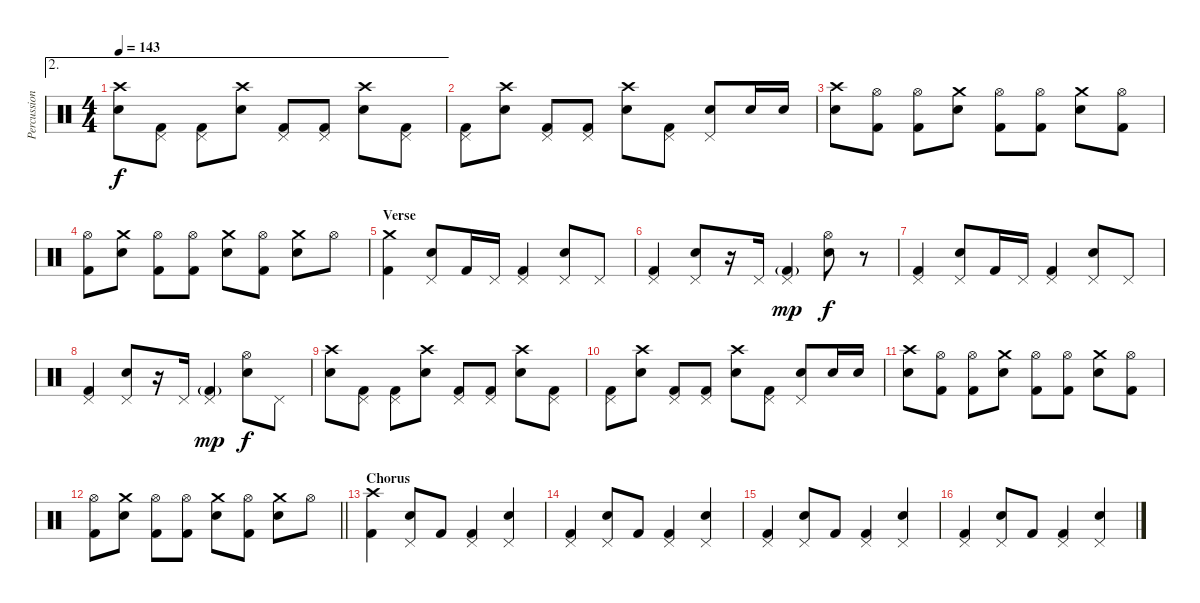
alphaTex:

\track ("Percussion" "Percussion") {instrument percussion}
\staff {score}
\articulation defaults
\ae 2
\ts (4 4)
\tempo 143
\clef neutral
\ks c
("Electric Snare (hit)" "Crash high (hit)").8{dy f} ("Pedal Hi-Hat (hit)" "Kick (hit) 2").8 ("Pedal Hi-Hat (hit)" "Kick (hit) 2").8 ("Electric Snare (hit)" "Crash high (hit)").8 ("Pedal Hi-Hat (hit)" "Kick (hit) 2").8 ("Pedal Hi-Hat (hit)" "Kick (hit) 2").8 ("Electric Snare (hit)" "Crash high (hit)").8 ("Pedal Hi-Hat (hit)" "Kick (hit) 2").8 |
("Pedal Hi-Hat (hit)" "Kick (hit) 2").8 ("Electric Snare (hit)" "Crash high (hit)").8 ("Pedal Hi-Hat (hit)" "Kick (hit) 2").8 ("Pedal Hi-Hat (hit)" "Kick (hit) 2").8 ("Electric Snare (hit)" "Crash high (hit)").8 ("Pedal Hi-Hat (hit)" "Kick (hit) 2").8 ("Pedal Hi-Hat (hit)" "Electric Snare (hit)").8 "Electric Snare (hit)".16 "Electric Snare (hit)".16 |
("Crash high (hit)" "Electric Snare (hit)").8 ("Hi-Hat (open)" "Kick (hit) 2").8 ("Hi-Hat (open)" "Kick (hit) 2").8 ("Electric Snare (hit)" "Crash medium (hit)").8 ("Hi-Hat (open)" "Kick (hit) 2").8 ("Hi-Hat (open)" "Kick (hit) 2").8 ("Electric Snare (hit)" "Crash medium (hit)").8 ("Hi-Hat (open)" "Kick (hit) 2").8 |
("Hi-Hat (open)" "Kick (hit) 2").8 ("Electric Snare (hit)" "Crash medium (hit)").8 ("Hi-Hat (open)" "Kick (hit) 2").8 ("Hi-Hat (open)" "Kick (hit) 2").8 ("Electric Snare (hit)" "Crash medium (hit)").8 ("Hi-Hat (open)" "Kick (hit) 2").8 ("Electric Snare (hit)" "Crash medium (hit)").8 "Hi-Hat (open)".8 |
\section ("" "Verse")
("Crash medium (hit)" "Kick (hit) 2").4 ("Pedal Hi-Hat (hit)" "Electric Snare (hit)").8 "Kick (hit) 2".16 "Pedal Hi-Hat (hit)".16 ("Pedal Hi-Hat (hit)" "Kick (hit) 2").4 ("Pedal Hi-Hat (hit)" "Electric Snare (hit)").8 "Pedal Hi-Hat (hit)".8 |
("Pedal Hi-Hat (hit)" "Kick (hit) 2").4 ("Pedal Hi-Hat (hit)" "Electric Snare (hit)").8 r.16 "Pedal Hi-Hat (hit)".16 ("Pedal Hi-Hat (hit)" "Kick (hit) 2"{g}).4{dy mp} ("Hi-Hat (open)" "Electric Snare (hit)").8{dy f} r.8 |
("Pedal Hi-Hat (hit)" "Kick (hit) 2").4 ("Pedal Hi-Hat (hit)" "Electric Snare (hit)").8 "Kick (hit) 2".16 "Pedal Hi-Hat (hit)".16 ("Pedal Hi-Hat (hit)" "Kick (hit) 2").4 ("Pedal Hi-Hat (hit)" "Electric Snare (hit)").8 "Pedal Hi-Hat (hit)".8 |
("Pedal Hi-Hat (hit)" "Kick (hit) 2").4 ("Pedal Hi-Hat (hit)" "Electric Snare (hit)").8 r.16 "Pedal Hi-Hat (hit)".16 ("Pedal Hi-Hat (hit)" "Kick (hit) 2"{g}).4{dy mp} ("Hi-Hat (open)" "Electric Snare (hit)").8{dy f} "Pedal Hi-Hat (hit)".8 |
("Electric Snare (hit)" "Crash high (hit)").8 ("Pedal Hi-Hat (hit)" "Kick (hit) 2").8 ("Pedal Hi-Hat (hit)" "Kick (hit) 2").8 ("Electric Snare (hit)" "Crash high (hit)").8 ("Pedal Hi-Hat (hit)" "Kick (hit) 2").8 ("Pedal Hi-Hat (hit)" "Kick (hit) 2").8 ("Electric Snare (hit)" "Crash high (hit)").8 ("Pedal Hi-Hat (hit)" "Kick (hit) 2").8 |
("Pedal Hi-Hat (hit)" "Kick (hit) 2").8 ("Electric Snare (hit)" "Crash high (hit)").8 ("Pedal Hi-Hat (hit)" "Kick (hit) 2").8 ("Pedal Hi-Hat (hit)" "Kick (hit) 2").8 ("Electric Snare (hit)" "Crash high (hit)").8 ("Pedal Hi-Hat (hit)" "Kick (hit) 2").8 ("Pedal Hi-Hat (hit)" "Electric Snare (hit)").8 "Electric Snare (hit)".16 "Electric Snare (hit)".16 |
("Crash high (hit)" "Electric Snare (hit)").8 ("Hi-Hat (open)" "Kick (hit) 2").8 ("Hi-Hat (open)" "Kick (hit) 2").8 ("Electric Snare (hit)" "Crash medium (hit)").8 ("Hi-Hat (open)" "Kick (hit) 2").8 ("Hi-Hat (open)" "Kick (hit) 2").8 ("Electric Snare (hit)" "Crash medium (hit)").8 ("Hi-Hat (open)" "Kick (hit) 2").8 |
\barLineRight lightlight
("Hi-Hat (open)" "Kick (hit) 2").8 ("Electric Snare (hit)" "Crash medium (hit)").8 ("Hi-Hat (open)" "Kick (hit) 2").8 ("Hi-Hat (open)" "Kick (hit) 2").8 ("Electric Snare (hit)" "Crash medium (hit)").8 ("Hi-Hat (open)" "Kick (hit) 2").8 ("Electric Snare (hit)" "Crash medium (hit)").8 "Hi-Hat (open)".8 |
\section ("" "Chorus")
("Crash high (hit)" "Kick (hit) 2").4 ("Pedal Hi-Hat (hit)" "Electric Snare (hit)").8 "Kick (hit) 2".8 ("Pedal Hi-Hat (hit)" "Kick (hit) 2").4 ("Pedal Hi-Hat (hit)" "Electric Snare (hit)").4 |
("Pedal Hi-Hat (hit)" "Kick (hit) 2").4 ("Pedal Hi-Hat (hit)" "Electric Snare (hit)").8 "Kick (hit) 2".8 ("Pedal Hi-Hat (hit)" "Kick (hit) 2").4 ("Pedal Hi-Hat (hit)" "Electric Snare (hit)").4 |
("Pedal Hi-Hat (hit)" "Kick (hit) 2").4 ("Pedal Hi-Hat (hit)" "Electric Snare (hit)").8 "Kick (hit) 2".8 ("Pedal Hi-Hat (hit)" "Kick (hit) 2").4 ("Pedal Hi-Hat (hit)" "Electric Snare (hit)").4 |
("Pedal Hi-Hat (hit)" "Kick (hit) 2").4 ("Pedal Hi-Hat (hit)" "Electric Snare (hit)").8 "Kick (hit) 2".8 ("Pedal Hi-Hat (hit)" "Kick (hit) 2").4 ("Pedal Hi-Hat (hit)" "Electric Snare (hit)").4
